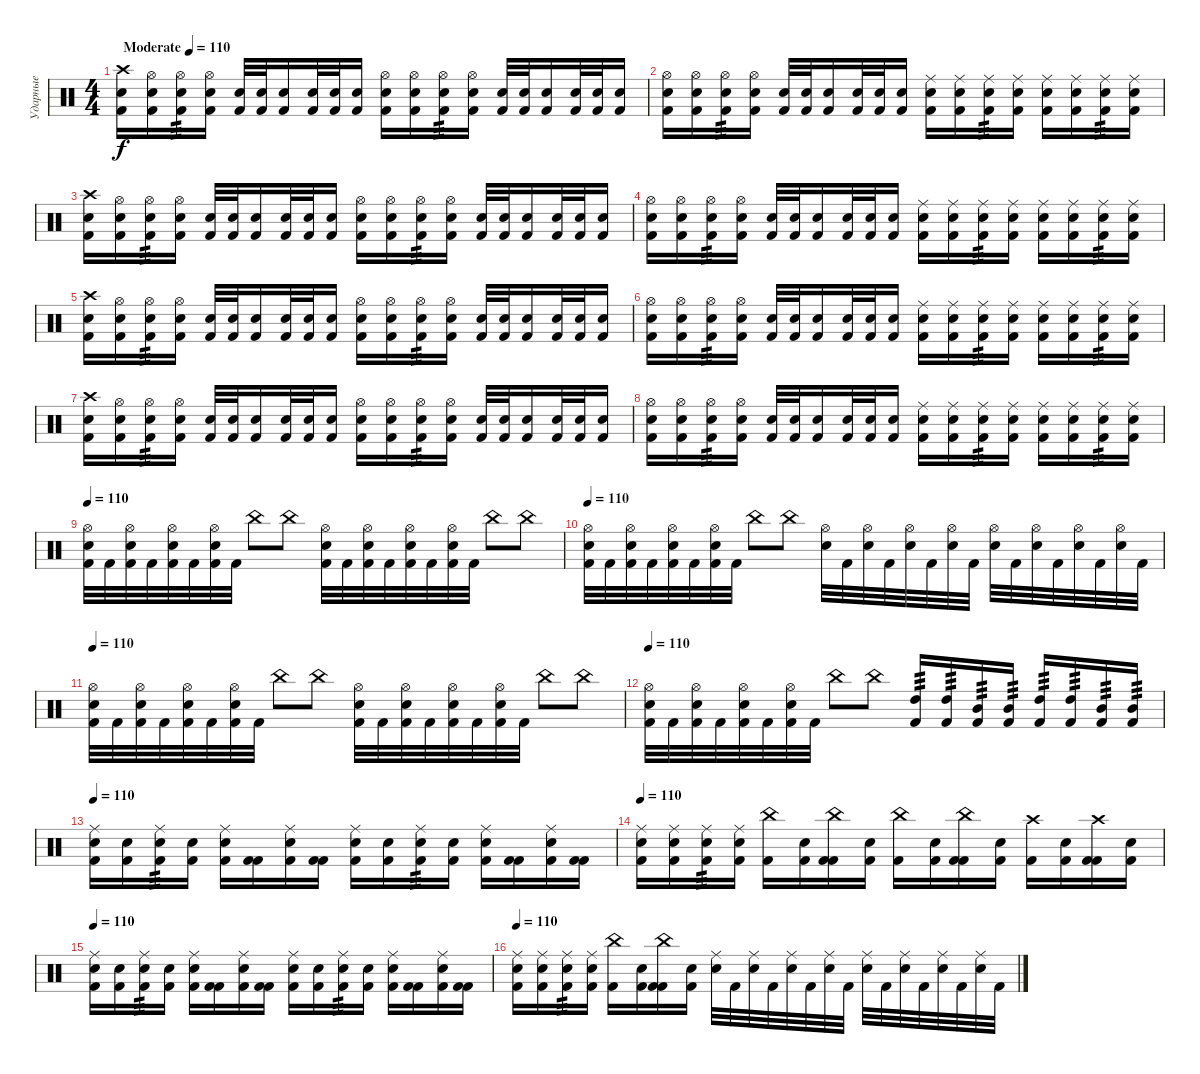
\track ("Ударные" "Ударные") {instrument percussion}
\staff {score}
\articulation defaults
\ts (4 4)
\tempo (110 "Moderate")
\clef neutral
\ks c
("Snare (hit) 2" "Kick (hit) 2" "Crash high (hit)").16{dy f} ("Snare (hit) 2" "Kick (hit) 2" "Hi-Hat (open)").16 ("Snare (hit) 2" "Kick (hit) 2" "Hi-Hat (open)").16{tp 3} ("Snare (hit) 2" "Kick (hit) 2" "Hi-Hat (open)").16 ("Snare (hit) 2" "Kick (hit) 2").32 ("Snare (hit) 2" "Kick (hit) 2").32 ("Snare (hit) 2" "Kick (hit) 2").16 ("Snare (hit) 2" "Kick (hit) 2").32 ("Snare (hit) 2" "Kick (hit) 2").32 ("Snare (hit) 2" "Kick (hit) 2").16 ("Snare (hit) 2" "Kick (hit) 2" "Hi-Hat (open)").16 ("Snare (hit) 2" "Kick (hit) 2" "Hi-Hat (open)").16 ("Snare (hit) 2" "Kick (hit) 2" "Hi-Hat (open)").16{tp 3} ("Snare (hit) 2" "Kick (hit) 2" "Hi-Hat (open)").16 ("Snare (hit) 2" "Kick (hit) 2").32 ("Snare (hit) 2" "Kick (hit) 2").32 ("Snare (hit) 2" "Kick (hit) 2").16 ("Snare (hit) 2" "Kick (hit) 2").32 ("Snare (hit) 2" "Kick (hit) 2").32 ("Snare (hit) 2" "Kick (hit) 2").16 |
("Snare (hit) 2" "Kick (hit) 2" "Hi-Hat (open)").16 ("Snare (hit) 2" "Kick (hit) 2" "Hi-Hat (open)").16 ("Snare (hit) 2" "Kick (hit) 2" "Hi-Hat (open)").16{tp 3} ("Snare (hit) 2" "Kick (hit) 2" "Hi-Hat (open)").16 ("Snare (hit) 2" "Kick (hit) 2").32 ("Snare (hit) 2" "Kick (hit) 2").32 ("Snare (hit) 2" "Kick (hit) 2").16 ("Snare (hit) 2" "Kick (hit) 2").32 ("Snare (hit) 2" "Kick (hit) 2").32 ("Snare (hit) 2" "Kick (hit) 2").16 ("Snare (hit) 2" "Kick (hit) 2" "Ride (middle)").16 ("Snare (hit) 2" "Kick (hit) 2" "Ride (middle)").16 ("Snare (hit) 2" "Kick (hit) 2" "Ride (middle)").16{tp 3} ("Snare (hit) 2" "Kick (hit) 2" "Ride (middle)").16 ("Snare (hit) 2" "Kick (hit) 2" "Ride (middle)").16 ("Snare (hit) 2" "Kick (hit) 2" "Ride (middle)").16 ("Snare (hit) 2" "Kick (hit) 2" "Ride (middle)").16{tp 3} ("Snare (hit) 2" "Kick (hit) 2" "Ride (middle)").16 |
("Snare (hit) 2" "Kick (hit) 2" "Crash high (hit)").16 ("Snare (hit) 2" "Kick (hit) 2" "Hi-Hat (open)").16 ("Snare (hit) 2" "Kick (hit) 2" "Hi-Hat (open)").16{tp 3} ("Snare (hit) 2" "Kick (hit) 2" "Hi-Hat (open)").16 ("Snare (hit) 2" "Kick (hit) 2").32 ("Snare (hit) 2" "Kick (hit) 2").32 ("Snare (hit) 2" "Kick (hit) 2").16 ("Snare (hit) 2" "Kick (hit) 2").32 ("Snare (hit) 2" "Kick (hit) 2").32 ("Snare (hit) 2" "Kick (hit) 2").16 ("Snare (hit) 2" "Kick (hit) 2" "Hi-Hat (open)").16 ("Snare (hit) 2" "Kick (hit) 2" "Hi-Hat (open)").16 ("Snare (hit) 2" "Kick (hit) 2" "Hi-Hat (open)").16{tp 3} ("Snare (hit) 2" "Kick (hit) 2" "Hi-Hat (open)").16 ("Snare (hit) 2" "Kick (hit) 2").32 ("Snare (hit) 2" "Kick (hit) 2").32 ("Snare (hit) 2" "Kick (hit) 2").16 ("Snare (hit) 2" "Kick (hit) 2").32 ("Snare (hit) 2" "Kick (hit) 2").32 ("Snare (hit) 2" "Kick (hit) 2").16 |
("Snare (hit) 2" "Kick (hit) 2" "Hi-Hat (open)").16 ("Snare (hit) 2" "Kick (hit) 2" "Hi-Hat (open)").16 ("Snare (hit) 2" "Kick (hit) 2" "Hi-Hat (open)").16{tp 3} ("Snare (hit) 2" "Kick (hit) 2" "Hi-Hat (open)").16 ("Snare (hit) 2" "Kick (hit) 2").32 ("Snare (hit) 2" "Kick (hit) 2").32 ("Snare (hit) 2" "Kick (hit) 2").16 ("Snare (hit) 2" "Kick (hit) 2").32 ("Snare (hit) 2" "Kick (hit) 2").32 ("Snare (hit) 2" "Kick (hit) 2").16 ("Snare (hit) 2" "Kick (hit) 2" "Ride (middle)").16 ("Snare (hit) 2" "Kick (hit) 2" "Ride (middle)").16 ("Snare (hit) 2" "Kick (hit) 2" "Ride (middle)").16{tp 3} ("Snare (hit) 2" "Kick (hit) 2" "Ride (middle)").16 ("Snare (hit) 2" "Kick (hit) 2" "Ride (middle)").16 ("Snare (hit) 2" "Kick (hit) 2" "Ride (middle)").16 ("Snare (hit) 2" "Kick (hit) 2" "Ride (middle)").16{tp 3} ("Snare (hit) 2" "Kick (hit) 2" "Ride (middle)").16 |
("Snare (hit) 2" "Kick (hit) 2" "Crash high (hit)").16 ("Snare (hit) 2" "Kick (hit) 2" "Hi-Hat (open)").16 ("Snare (hit) 2" "Kick (hit) 2" "Hi-Hat (open)").16{tp 3} ("Snare (hit) 2" "Kick (hit) 2" "Hi-Hat (open)").16 ("Snare (hit) 2" "Kick (hit) 2").32 ("Snare (hit) 2" "Kick (hit) 2").32 ("Snare (hit) 2" "Kick (hit) 2").16 ("Snare (hit) 2" "Kick (hit) 2").32 ("Snare (hit) 2" "Kick (hit) 2").32 ("Snare (hit) 2" "Kick (hit) 2").16 ("Snare (hit) 2" "Kick (hit) 2" "Hi-Hat (open)").16 ("Snare (hit) 2" "Kick (hit) 2" "Hi-Hat (open)").16 ("Snare (hit) 2" "Kick (hit) 2" "Hi-Hat (open)").16{tp 3} ("Snare (hit) 2" "Kick (hit) 2" "Hi-Hat (open)").16 ("Snare (hit) 2" "Kick (hit) 2").32 ("Snare (hit) 2" "Kick (hit) 2").32 ("Snare (hit) 2" "Kick (hit) 2").16 ("Snare (hit) 2" "Kick (hit) 2").32 ("Snare (hit) 2" "Kick (hit) 2").32 ("Snare (hit) 2" "Kick (hit) 2").16 |
("Snare (hit) 2" "Kick (hit) 2" "Hi-Hat (open)").16 ("Snare (hit) 2" "Kick (hit) 2" "Hi-Hat (open)").16 ("Snare (hit) 2" "Kick (hit) 2" "Hi-Hat (open)").16{tp 3} ("Snare (hit) 2" "Kick (hit) 2" "Hi-Hat (open)").16 ("Snare (hit) 2" "Kick (hit) 2").32 ("Snare (hit) 2" "Kick (hit) 2").32 ("Snare (hit) 2" "Kick (hit) 2").16 ("Snare (hit) 2" "Kick (hit) 2").32 ("Snare (hit) 2" "Kick (hit) 2").32 ("Snare (hit) 2" "Kick (hit) 2").16 ("Snare (hit) 2" "Kick (hit) 2" "Ride (middle)").16 ("Snare (hit) 2" "Kick (hit) 2" "Ride (middle)").16 ("Snare (hit) 2" "Kick (hit) 2" "Ride (middle)").16{tp 3} ("Snare (hit) 2" "Kick (hit) 2" "Ride (middle)").16 ("Snare (hit) 2" "Kick (hit) 2" "Ride (middle)").16 ("Snare (hit) 2" "Kick (hit) 2" "Ride (middle)").16 ("Snare (hit) 2" "Kick (hit) 2" "Ride (middle)").16{tp 3} ("Snare (hit) 2" "Kick (hit) 2" "Ride (middle)").16 |
("Snare (hit) 2" "Kick (hit) 2" "Crash high (hit)").16 ("Snare (hit) 2" "Kick (hit) 2" "Hi-Hat (open)").16 ("Snare (hit) 2" "Kick (hit) 2" "Hi-Hat (open)").16{tp 3} ("Snare (hit) 2" "Kick (hit) 2" "Hi-Hat (open)").16 ("Snare (hit) 2" "Kick (hit) 2").32 ("Snare (hit) 2" "Kick (hit) 2").32 ("Snare (hit) 2" "Kick (hit) 2").16 ("Snare (hit) 2" "Kick (hit) 2").32 ("Snare (hit) 2" "Kick (hit) 2").32 ("Snare (hit) 2" "Kick (hit) 2").16 ("Snare (hit) 2" "Kick (hit) 2" "Hi-Hat (open)").16 ("Snare (hit) 2" "Kick (hit) 2" "Hi-Hat (open)").16 ("Snare (hit) 2" "Kick (hit) 2" "Hi-Hat (open)").16{tp 3} ("Snare (hit) 2" "Kick (hit) 2" "Hi-Hat (open)").16 ("Snare (hit) 2" "Kick (hit) 2").32 ("Snare (hit) 2" "Kick (hit) 2").32 ("Snare (hit) 2" "Kick (hit) 2").16 ("Snare (hit) 2" "Kick (hit) 2").32 ("Snare (hit) 2" "Kick (hit) 2").32 ("Snare (hit) 2" "Kick (hit) 2").16 |
("Snare (hit) 2" "Kick (hit) 2" "Hi-Hat (open)").16 ("Snare (hit) 2" "Kick (hit) 2" "Hi-Hat (open)").16 ("Snare (hit) 2" "Kick (hit) 2" "Hi-Hat (open)").16{tp 3} ("Snare (hit) 2" "Kick (hit) 2" "Hi-Hat (open)").16 ("Snare (hit) 2" "Kick (hit) 2").32 ("Snare (hit) 2" "Kick (hit) 2").32 ("Snare (hit) 2" "Kick (hit) 2").16 ("Snare (hit) 2" "Kick (hit) 2").32 ("Snare (hit) 2" "Kick (hit) 2").32 ("Snare (hit) 2" "Kick (hit) 2").16 ("Snare (hit) 2" "Kick (hit) 2" "Ride (middle)").16 ("Snare (hit) 2" "Kick (hit) 2" "Ride (middle)").16 ("Snare (hit) 2" "Kick (hit) 2" "Ride (middle)").16{tp 3} ("Snare (hit) 2" "Kick (hit) 2" "Ride (middle)").16 ("Snare (hit) 2" "Kick (hit) 2" "Ride (middle)").16 ("Snare (hit) 2" "Kick (hit) 2" "Ride (middle)").16 ("Snare (hit) 2" "Kick (hit) 2" "Ride (middle)").16{tp 3} ("Snare (hit) 2" "Kick (hit) 2" "Ride (middle)").16 |
\tempo 110
("Hi-Hat (open)" "Snare (hit) 2" "Kick (hit) 2").32 "Kick (hit) 2".32 ("Hi-Hat (open)" "Snare (hit) 2" "Kick (hit) 2").32 "Kick (hit) 2".32 ("Hi-Hat (open)" "Snare (hit) 2" "Kick (hit) 2").32 "Kick (hit) 2".32 ("Hi-Hat (open)" "Snare (hit) 2" "Kick (hit) 2").32 "Kick (hit) 2".32 "China (hit)".8 "China (hit)".8 ("Hi-Hat (open)" "Snare (hit) 2" "Kick (hit) 2").32 "Kick (hit) 2".32 ("Hi-Hat (open)" "Snare (hit) 2" "Kick (hit) 2").32 "Kick (hit) 2".32 ("Hi-Hat (open)" "Snare (hit) 2" "Kick (hit) 2").32 "Kick (hit) 2".32 ("Hi-Hat (open)" "Snare (hit) 2" "Kick (hit) 2").32 "Kick (hit) 2".32 "China (hit)".8 "China (hit)".8 |
\tempo 110
("Hi-Hat (open)" "Snare (hit) 2" "Kick (hit) 2").32 "Kick (hit) 2".32 ("Hi-Hat (open)" "Snare (hit) 2" "Kick (hit) 2").32 "Kick (hit) 2".32 ("Hi-Hat (open)" "Snare (hit) 2" "Kick (hit) 2").32 "Kick (hit) 2".32 ("Hi-Hat (open)" "Snare (hit) 2" "Kick (hit) 2").32 "Kick (hit) 2".32 "China (hit)".8 "China (hit)".8 ("Hi-Hat (open)" "Snare (hit) 2").32 "Kick (hit) 2".32 ("Hi-Hat (open)" "Snare (hit) 2").32 "Kick (hit) 2".32 ("Hi-Hat (open)" "Snare (hit) 2").32 "Kick (hit) 2".32 ("Hi-Hat (open)" "Snare (hit) 2").32 "Kick (hit) 2".32 ("Hi-Hat (open)" "Snare (hit) 2").32 "Kick (hit) 2".32 ("Hi-Hat (open)" "Snare (hit) 2").32 "Kick (hit) 2".32 ("Hi-Hat (open)" "Snare (hit) 2").32 "Kick (hit) 2".32 ("Hi-Hat (open)" "Snare (hit) 2").32 "Kick (hit) 2".32 |
\tempo 110
("Hi-Hat (open)" "Snare (hit) 2" "Kick (hit) 2").32 "Kick (hit) 2".32 ("Hi-Hat (open)" "Snare (hit) 2" "Kick (hit) 2").32 "Kick (hit) 2".32 ("Hi-Hat (open)" "Snare (hit) 2" "Kick (hit) 2").32 "Kick (hit) 2".32 ("Hi-Hat (open)" "Snare (hit) 2" "Kick (hit) 2").32 "Kick (hit) 2".32 "China (hit)".8 "China (hit)".8 ("Hi-Hat (open)" "Snare (hit) 2" "Kick (hit) 2").32 "Kick (hit) 2".32 ("Hi-Hat (open)" "Snare (hit) 2" "Kick (hit) 2").32 "Kick (hit) 2".32 ("Hi-Hat (open)" "Snare (hit) 2" "Kick (hit) 2").32 "Kick (hit) 2".32 ("Hi-Hat (open)" "Snare (hit) 2" "Kick (hit) 2").32 "Kick (hit) 2".32 "China (hit)".8 "China (hit)".8 |
\tempo 110
("Hi-Hat (open)" "Snare (hit) 2" "Kick (hit) 2").32 "Kick (hit) 2".32 ("Hi-Hat (open)" "Snare (hit) 2" "Kick (hit) 2").32 "Kick (hit) 2".32 ("Hi-Hat (open)" "Snare (hit) 2" "Kick (hit) 2").32 "Kick (hit) 2".32 ("Hi-Hat (open)" "Snare (hit) 2" "Kick (hit) 2").32 "Kick (hit) 2".32 "China (hit)".8 "China (hit)".8 ("High Tom (hit)" "Kick (hit) 2").16{tp 3} ("High Tom (hit)" "Kick (hit) 2").16{tp 3} ("Mid Tom (hit)" "Kick (hit) 2").16{tp 3} ("Mid Tom (hit)" "Kick (hit) 2").16{tp 3} ("High Tom (hit)" "Kick (hit) 2").16{tp 3} ("High Tom (hit)" "Kick (hit) 2").16{tp 3} ("Mid Tom (hit)" "Kick (hit) 2").16{tp 3} ("Mid Tom (hit)" "Kick (hit) 2").16{tp 3} |
\tempo 110
("Snare (hit) 2" "Kick (hit) 2" "Ride (middle)").16 ("Snare (hit) 2" "Kick (hit) 2").16 ("Snare (hit) 2" "Kick (hit) 2" "Ride (middle)").16{tp 3} ("Snare (hit) 2" "Kick (hit) 2").16 ("Kick (hit) 2" "Snare (hit) 2" "Ride (middle)").16 ("Kick (hit) 2" "Kick (hit) 2").16 ("Kick (hit) 2" "Snare (hit) 2" "Ride (middle)").16 ("Kick (hit) 2" "Kick (hit) 2").16 ("Snare (hit) 2" "Kick (hit) 2" "Ride (middle)").16 ("Snare (hit) 2" "Kick (hit) 2").16 ("Snare (hit) 2" "Kick (hit) 2" "Ride (middle)").16{tp 3} ("Snare (hit) 2" "Kick (hit) 2").16 ("Kick (hit) 2" "Snare (hit) 2" "Ride (middle)").16 ("Kick (hit) 2" "Kick (hit) 2").16 ("Kick (hit) 2" "Snare (hit) 2" "Ride (middle)").16 ("Kick (hit) 2" "Kick (hit) 2").16 |
\tempo 110
("Snare (hit) 2" "Kick (hit) 2" "Ride (middle)").16 ("Snare (hit) 2" "Kick (hit) 2" "Ride (middle)").16 ("Snare (hit) 2" "Kick (hit) 2" "Ride (middle)").16{tp 3} ("Snare (hit) 2" "Kick (hit) 2" "Ride (middle)").16 ("Kick (hit) 2" "China (hit)").16 ("Kick (hit) 2" "Snare (hit) 2").16 ("Kick (hit) 2" "Kick (hit) 2" "China (hit)").16 ("Kick (hit) 2" "Snare (hit) 2").16 ("Kick (hit) 2" "China (hit)").16 ("Kick (hit) 2" "Snare (hit) 2").16 ("Kick (hit) 2" "Kick (hit) 2" "China (hit)").16 ("Kick (hit) 2" "Snare (hit) 2").16 ("Kick (hit) 2" "Crash high (hit)").16 ("Kick (hit) 2" "Snare (hit) 2").16 ("Kick (hit) 2" "Kick (hit) 2" "Crash high (hit)").16 ("Kick (hit) 2" "Snare (hit) 2").16 |
\tempo 110
("Snare (hit) 2" "Kick (hit) 2" "Ride (middle)").16 ("Snare (hit) 2" "Kick (hit) 2").16 ("Snare (hit) 2" "Kick (hit) 2" "Ride (middle)").16{tp 3} ("Snare (hit) 2" "Kick (hit) 2").16 ("Kick (hit) 2" "Snare (hit) 2" "Ride (middle)").16 ("Kick (hit) 2" "Kick (hit) 2").16 ("Kick (hit) 2" "Snare (hit) 2" "Ride (middle)").16 ("Kick (hit) 2" "Kick (hit) 2").16 ("Snare (hit) 2" "Kick (hit) 2" "Ride (middle)").16 ("Snare (hit) 2" "Kick (hit) 2").16 ("Snare (hit) 2" "Kick (hit) 2" "Ride (middle)").16{tp 3} ("Snare (hit) 2" "Kick (hit) 2").16 ("Kick (hit) 2" "Snare (hit) 2" "Ride (middle)").16 ("Kick (hit) 2" "Kick (hit) 2").16 ("Kick (hit) 2" "Snare (hit) 2" "Ride (middle)").16 ("Kick (hit) 2" "Kick (hit) 2").16 |
\tempo 110
("Snare (hit) 2" "Kick (hit) 2" "Ride (middle)").16 ("Snare (hit) 2" "Kick (hit) 2" "Ride (middle)").16 ("Snare (hit) 2" "Kick (hit) 2" "Ride (middle)").16{tp 3} ("Snare (hit) 2" "Kick (hit) 2" "Ride (middle)").16 ("Kick (hit) 2" "China (hit)").16 ("Kick (hit) 2" "Snare (hit) 2").16 ("Kick (hit) 2" "Kick (hit) 2" "China (hit)").16 ("Kick (hit) 2" "Snare (hit) 2").16 ("Ride (middle)" "Snare (hit) 2").32 "Kick (hit) 2".32 ("Ride (middle)" "Snare (hit) 2").32 "Kick (hit) 2".32 ("Ride (middle)" "Snare (hit) 2").32 "Kick (hit) 2".32 ("Ride (middle)" "Snare (hit) 2").32 "Kick (hit) 2".32 ("Ride (middle)" "Snare (hit) 2").32 "Kick (hit) 2".32 ("Ride (middle)" "Snare (hit) 2").32 "Kick (hit) 2".32 ("Ride (middle)" "Snare (hit) 2").32 "Kick (hit) 2".32 ("Ride (middle)" "Snare (hit) 2").32 "Kick (hit) 2".32
